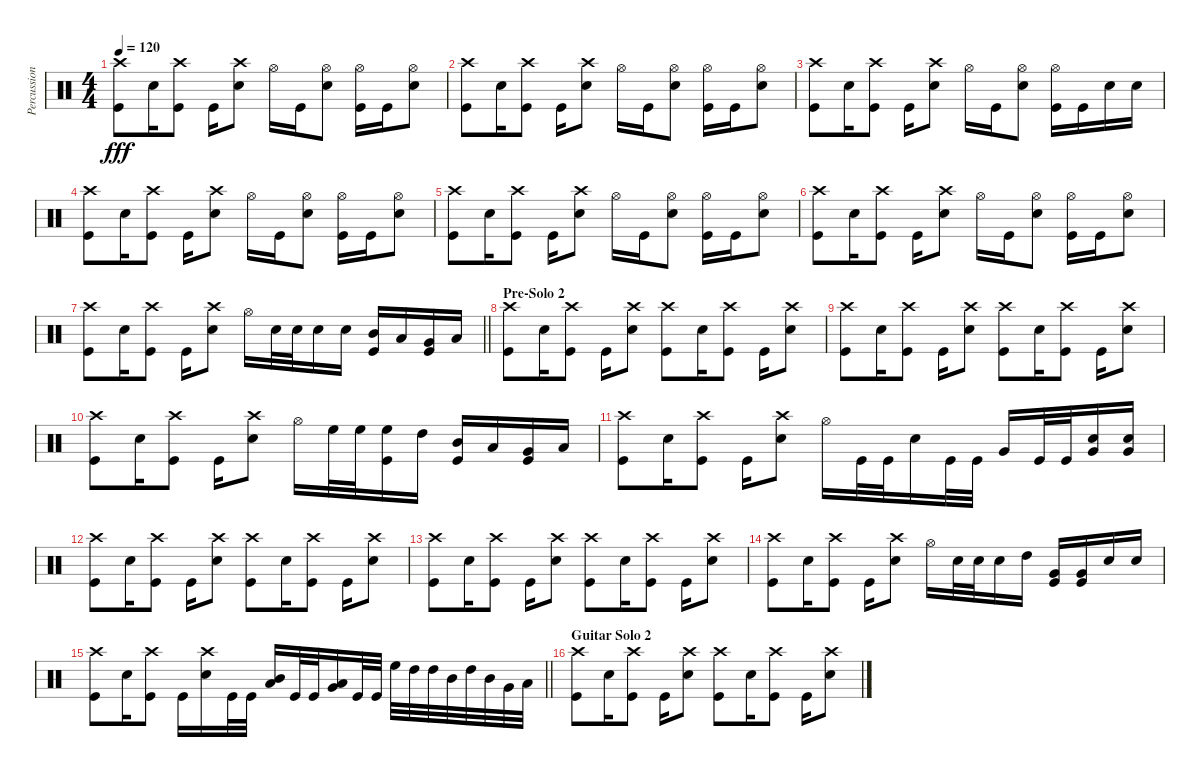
\track ("Percussion" "Percussion") {instrument percussion}
\staff {score}
\articulation defaults
\ts (4 4)
\tempo 120
\clef neutral
\ks c
("Crash high (hit)" "Kick (hit)").8{dy fff} "Snare (hit) 2".16 ("Crash high (hit)" "Kick (hit)").8 "Kick (hit)".16 ("Crash high (hit)" "Snare (hit) 2").8 "Hi-Hat (open)".16 "Kick (hit)".16 ("Hi-Hat (open)" "Snare (hit) 2").8 ("Hi-Hat (open)" "Kick (hit)").16 "Kick (hit)".16 ("Hi-Hat (open)" "Snare (hit) 2").8 |
("Crash high (hit)" "Kick (hit)").8 "Snare (hit) 2".16 ("Crash high (hit)" "Kick (hit)").8 "Kick (hit)".16 ("Crash high (hit)" "Snare (hit) 2").8 "Hi-Hat (open)".16 "Kick (hit)".16 ("Hi-Hat (open)" "Snare (hit) 2").8 ("Hi-Hat (open)" "Kick (hit)").16 "Kick (hit)".16 ("Hi-Hat (open)" "Snare (hit) 2").8 |
("Crash high (hit)" "Kick (hit)").8 "Snare (hit) 2".16 ("Crash high (hit)" "Kick (hit)").8 "Kick (hit)".16 ("Crash high (hit)" "Snare (hit) 2").8 "Hi-Hat (open)".16 "Kick (hit)".16 ("Hi-Hat (open)" "Snare (hit) 2").8 ("Hi-Hat (open)" "Kick (hit)").16 "Kick (hit)".16 "Snare (hit) 2".16 "Snare (hit) 2".16 |
("Crash high (hit)" "Kick (hit)").8 "Snare (hit) 2".16 ("Crash high (hit)" "Kick (hit)").8 "Kick (hit)".16 ("Crash high (hit)" "Snare (hit) 2").8 "Hi-Hat (open)".16 "Kick (hit)".16 ("Hi-Hat (open)" "Snare (hit) 2").8 ("Hi-Hat (open)" "Kick (hit)").16 "Kick (hit)".16 ("Hi-Hat (open)" "Snare (hit) 2").8 |
("Crash high (hit)" "Kick (hit)").8 "Snare (hit) 2".16 ("Crash high (hit)" "Kick (hit)").8 "Kick (hit)".16 ("Crash high (hit)" "Snare (hit) 2").8 "Hi-Hat (open)".16 "Kick (hit)".16 ("Hi-Hat (open)" "Snare (hit) 2").8 ("Hi-Hat (open)" "Kick (hit)").16 "Kick (hit)".16 ("Hi-Hat (open)" "Snare (hit) 2").8 |
("Crash high (hit)" "Kick (hit)").8 "Snare (hit) 2".16 ("Crash high (hit)" "Kick (hit)").8 "Kick (hit)".16 ("Crash high (hit)" "Snare (hit) 2").8 "Hi-Hat (open)".16 "Kick (hit)".16 ("Hi-Hat (open)" "Snare (hit) 2").8 ("Hi-Hat (open)" "Kick (hit)").16 "Kick (hit)".16 ("Hi-Hat (open)" "Snare (hit) 2").8 |
\barLineRight lightlight
("Crash high (hit)" "Kick (hit)").8 "Snare (hit) 2".16 ("Crash high (hit)" "Kick (hit)").8 "Kick (hit)".16 ("Crash high (hit)" "Snare (hit) 2").8 "Hi-Hat (open)".16 "Snare (hit) 2".32 "Snare (hit) 2".32 "Snare (hit) 2".16 "Snare (hit) 2".16 ("Mid Tom (hit)" "Kick (hit)").16 "Low Tom (hit)".16 ("Very Low Tom (hit)" "Kick (hit)").16 "Low Floor Tom (hit)".16 |
\section ("" "Pre-Solo 2")
("Crash high (hit)" "Kick (hit)").8 "Snare (hit) 2".16 ("Crash high (hit)" "Kick (hit)").8 "Kick (hit)".16 ("Crash high (hit)" "Snare (hit) 2").8 ("Crash high (hit)" "Kick (hit)").8 "Snare (hit) 2".16 ("Crash high (hit)" "Kick (hit)").8 "Kick (hit)".16 ("Crash high (hit)" "Snare (hit) 2").8 |
("Crash high (hit)" "Kick (hit)").8 "Snare (hit) 2".16 ("Crash high (hit)" "Kick (hit)").8 "Kick (hit)".16 ("Crash high (hit)" "Snare (hit) 2").8 ("Crash high (hit)" "Kick (hit)").8 "Snare (hit) 2".16 ("Crash high (hit)" "Kick (hit)").8 "Kick (hit)".16 ("Crash high (hit)" "Snare (hit) 2").8 |
("Crash high (hit)" "Kick (hit)").8 "Snare (hit) 2".16 ("Crash high (hit)" "Kick (hit)").8 "Kick (hit)".16 ("Crash high (hit)" "Snare (hit) 2").8 "Hi-Hat (open)".16 "High Floor Tom (hit)".32 "High Floor Tom (hit)".32 ("High Floor Tom (hit)" "Kick (hit)").16 "High Tom (hit)".16 ("Mid Tom (hit)" "Kick (hit)").16 "Low Tom (hit)".16 ("Very Low Tom (hit)" "Kick (hit)").16 "Low Floor Tom (hit)".16 |
("Crash high (hit)" "Kick (hit)").8 "Snare (hit) 2".16 ("Crash high (hit)" "Kick (hit)").8 "Kick (hit)".16 ("Crash high (hit)" "Snare (hit) 2").8 "Hi-Hat (open)".16 "Kick (hit)".32 "Kick (hit)".32 "Snare (hit) 2".16 "Kick (hit)".32 "Kick (hit)".32 "Very Low Tom (hit)".16 "Kick (hit)".32 "Kick (hit)".32 ("Snare (hit) 2" "Very Low Tom (hit)").16 ("Snare (hit) 2" "Very Low Tom (hit)").16 |
("Crash high (hit)" "Kick (hit)").8 "Snare (hit) 2".16 ("Crash high (hit)" "Kick (hit)").8 "Kick (hit)".16 ("Crash high (hit)" "Snare (hit) 2").8 ("Crash high (hit)" "Kick (hit)").8 "Snare (hit) 2".16 ("Crash high (hit)" "Kick (hit)").8 "Kick (hit)".16 ("Crash high (hit)" "Snare (hit) 2").8 |
("Crash high (hit)" "Kick (hit)").8 "Snare (hit) 2".16 ("Crash high (hit)" "Kick (hit)").8 "Kick (hit)".16 ("Crash high (hit)" "Snare (hit) 2").8 ("Crash high (hit)" "Kick (hit)").8 "Snare (hit) 2".16 ("Crash high (hit)" "Kick (hit)").8 "Kick (hit)".16 ("Crash high (hit)" "Snare (hit) 2").8 |
("Crash high (hit)" "Kick (hit)").8 "Snare (hit) 2".16 ("Crash high (hit)" "Kick (hit)").8 "Kick (hit)".16 ("Crash high (hit)" "Snare (hit) 2").8 "Hi-Hat (open)".16 "Snare (hit) 2".32 "Snare (hit) 2".32 "Snare (hit) 2".16 "High Tom (hit)".16 ("Very Low Tom (hit)" "Kick (hit)").16 ("Very Low Tom (hit)" "Kick (hit)").16 "Snare (hit) 2".16 "Snare (hit) 2".16 |
\barLineRight lightlight
("Crash high (hit)" "Kick (hit)").8 "Snare (hit) 2".16 ("Crash high (hit)" "Kick (hit)").8 "Kick (hit)".16 ("Crash high (hit)" "Snare (hit) 2").16 "Kick (hit)".32 "Kick (hit)".32 ("Mid Tom (hit)" "Low Tom (hit)").16 "Kick (hit)".32 "Kick (hit)".32 ("Low Tom (hit)" "Very Low Tom (hit)").16 "Kick (hit)".32 "Kick (hit)".32 "High Floor Tom (hit)".32 "High Tom (hit)".32 "High Tom (hit)".32 "Mid Tom (hit)".32 "High Tom (hit)".32 "Mid Tom (hit)".32 "Very Low Tom (hit)".32 "Low Floor Tom (hit)".32 |
\section ("" "Guitar Solo 2")
("Crash high (hit)" "Kick (hit)").8 "Snare (hit) 2".16 ("Crash high (hit)" "Kick (hit)").8 "Kick (hit)".16 ("Crash high (hit)" "Snare (hit) 2").8 ("Crash high (hit)" "Kick (hit)").8 "Snare (hit) 2".16 ("Crash high (hit)" "Kick (hit)").8 "Kick (hit)".16 ("Crash high (hit)" "Snare (hit) 2").8
